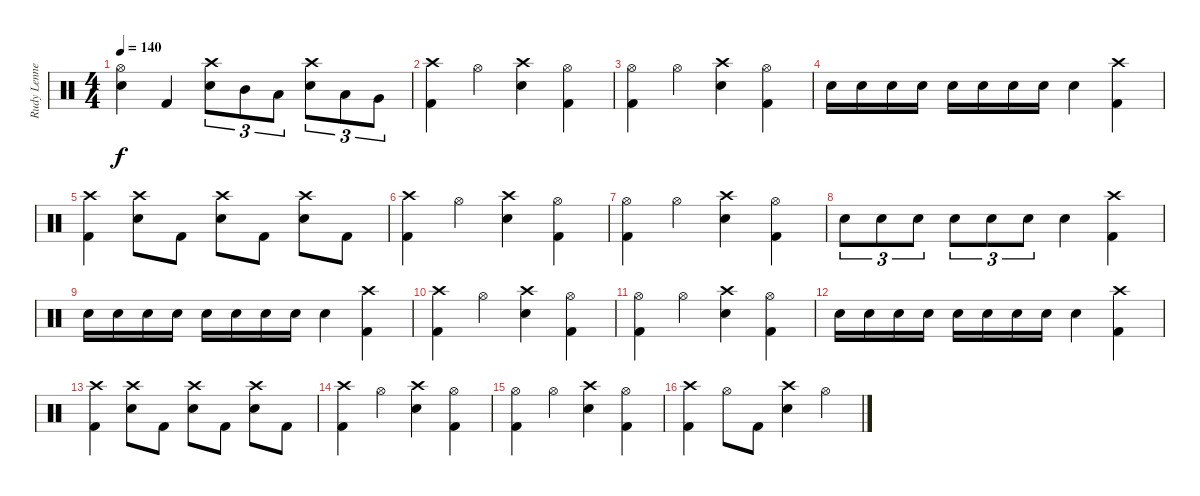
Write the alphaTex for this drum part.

\track ("Rudy Lenners" "Rudy Lenne") {instrument percussion}
\staff {score}
\articulation defaults
\ts (4 4)
\tempo 140
\clef neutral
\ks c
("Hi-Hat (open)" "Snare (hit) 2").4{dy f} "Kick (hit) 2".4 ("Crash high (hit)" "Snare (hit) 2").8{tu (3 2)} "Mid Tom (hit)".8{tu (3 2)} "Low Tom (hit)".8{tu (3 2)} ("Crash high (hit)" "Snare (hit) 2").8{tu (3 2)} "Low Tom (hit)".8{tu (3 2)} "Very Low Tom (hit)".8{tu (3 2)} |
("Crash high (hit)" "Kick (hit) 2").4 "Hi-Hat (open)".4 ("Crash high (hit)" "Snare (hit) 2").4 ("Hi-Hat (open)" "Kick (hit) 2").4 |
("Hi-Hat (open)" "Kick (hit) 2").4 "Hi-Hat (open)".4 ("Crash high (hit)" "Snare (hit) 2").4 ("Hi-Hat (open)" "Kick (hit) 2").4 |
"Snare (hit) 2".16 "Snare (hit) 2".16 "Snare (hit) 2".16 "Snare (hit) 2".16 "Snare (hit) 2".16 "Snare (hit) 2".16 "Snare (hit) 2".16 "Snare (hit) 2".16 "Snare (hit) 2".4 ("Crash high (hit)" "Kick (hit) 2").4 |
("Crash high (hit)" "Kick (hit) 2").4 ("Snare (hit) 2" "Crash high (hit)").8 "Kick (hit) 2".8 ("Crash high (hit)" "Snare (hit) 2").8 "Kick (hit) 2".8 ("Crash high (hit)" "Snare (hit) 2").8 "Kick (hit) 2".8 |
("Crash high (hit)" "Kick (hit) 2").4 "Hi-Hat (open)".4 ("Crash high (hit)" "Snare (hit) 2").4 ("Hi-Hat (open)" "Kick (hit) 2").4 |
("Hi-Hat (open)" "Kick (hit) 2").4 "Hi-Hat (open)".4 ("Crash high (hit)" "Snare (hit) 2").4 ("Hi-Hat (open)" "Kick (hit) 2").4 |
"Snare (hit) 2".8{tu (3 2)} "Snare (hit) 2".8{tu (3 2)} "Snare (hit) 2".8{tu (3 2)} "Snare (hit) 2".8{tu (3 2)} "Snare (hit) 2".8{tu (3 2)} "Snare (hit) 2".8{tu (3 2)} "Snare (hit) 2".4 ("Crash high (hit)" "Kick (hit) 2").4 |
"Snare (hit) 2".16 "Snare (hit) 2".16 "Snare (hit) 2".16 "Snare (hit) 2".16 "Snare (hit) 2".16 "Snare (hit) 2".16 "Snare (hit) 2".16 "Snare (hit) 2".16 "Snare (hit) 2".4 ("Crash high (hit)" "Kick (hit) 2").4 |
("Crash high (hit)" "Kick (hit) 2").4 "Hi-Hat (open)".4 ("Crash high (hit)" "Snare (hit) 2").4 ("Hi-Hat (open)" "Kick (hit) 2").4 |
("Hi-Hat (open)" "Kick (hit) 2").4 "Hi-Hat (open)".4 ("Crash high (hit)" "Snare (hit) 2").4 ("Hi-Hat (open)" "Kick (hit) 2").4 |
"Snare (hit) 2".16 "Snare (hit) 2".16 "Snare (hit) 2".16 "Snare (hit) 2".16 "Snare (hit) 2".16 "Snare (hit) 2".16 "Snare (hit) 2".16 "Snare (hit) 2".16 "Snare (hit) 2".4 ("Crash high (hit)" "Kick (hit) 2").4 |
("Crash high (hit)" "Kick (hit) 2").4 ("Snare (hit) 2" "Crash high (hit)").8 "Kick (hit) 2".8 ("Crash high (hit)" "Snare (hit) 2").8 "Kick (hit) 2".8 ("Crash high (hit)" "Snare (hit) 2").8 "Kick (hit) 2".8 |
("Crash high (hit)" "Kick (hit) 2").4 "Hi-Hat (open)".4 ("Crash high (hit)" "Snare (hit) 2").4 ("Hi-Hat (open)" "Kick (hit) 2").4 |
("Hi-Hat (open)" "Kick (hit) 2").4 "Hi-Hat (open)".4 ("Crash high (hit)" "Snare (hit) 2").4 ("Hi-Hat (open)" "Kick (hit) 2").4 |
("Crash high (hit)" "Kick (hit) 2").4 "Hi-Hat (open)".8 "Kick (hit) 2".8 ("Crash high (hit)" "Snare (hit) 2").4 "Hi-Hat (open)".4
